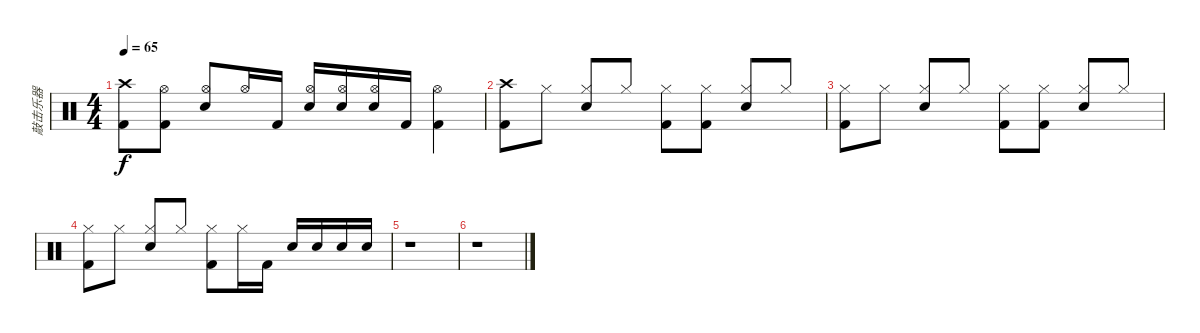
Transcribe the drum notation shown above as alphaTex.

\track ("敲击乐器" "敲击乐器") {instrument percussion}
\staff {score}
\articulation defaults
\ts (4 4)
\tempo 65
\clef neutral
\ks c
("Crash high (hit)" "Kick (hit) 2").8{dy f} ("Hi-Hat (open)" "Kick (hit) 2").8 ("Hi-Hat (open)" "Electric Snare (hit)").8{beam Up} "Hi-Hat (open)".16{beam Up} "Kick (hit) 2".16{beam Up} ("Hi-Hat (open)" "Electric Snare (hit)").16{beam Up} ("Hi-Hat (open)" "Electric Snare (hit)").16{beam Up} ("Hi-Hat (open)" "Electric Snare (hit)").16{beam Up} "Kick (hit) 2".16{beam Up} ("Hi-Hat (open)" "Kick (hit) 2").4 |
("Crash high (hit)" "Kick (hit) 2").8{beam Down} "Hi-Hat (closed)".8{beam Down} ("Hi-Hat (closed)" "Electric Snare (hit)").8{beam Up} "Hi-Hat (closed)".8{beam Up} ("Hi-Hat (closed)" "Kick (hit) 2").8{beam Down} ("Hi-Hat (closed)" "Kick (hit) 2").8{beam Down} ("Hi-Hat (closed)" "Electric Snare (hit)").8{beam Up} "Hi-Hat (closed)".8{beam Up} |
("Hi-Hat (closed)" "Kick (hit) 2").8{beam Down} "Hi-Hat (closed)".8{beam Down} ("Hi-Hat (closed)" "Electric Snare (hit)").8{beam Up} "Hi-Hat (closed)".8{beam Up} ("Hi-Hat (closed)" "Kick (hit) 2").8{beam Down} ("Hi-Hat (closed)" "Kick (hit) 2").8{beam Down} ("Hi-Hat (closed)" "Electric Snare (hit)").8{beam Up} "Hi-Hat (closed)".8{beam Up} |
("Hi-Hat (closed)" "Kick (hit) 2").8{beam Down} "Hi-Hat (closed)".8{beam Down} ("Hi-Hat (closed)" "Electric Snare (hit)").8{beam Up} "Hi-Hat (closed)".8{beam Up} ("Hi-Hat (closed)" "Kick (hit) 2").8 "Hi-Hat (closed)".16 "Kick (hit) 2".16 "Electric Snare (hit)".16{beam Up} "Electric Snare (hit)".16 "Electric Snare (hit)".16 "Electric Snare (hit)".16{beam Up} |
r.1 |
r.1
